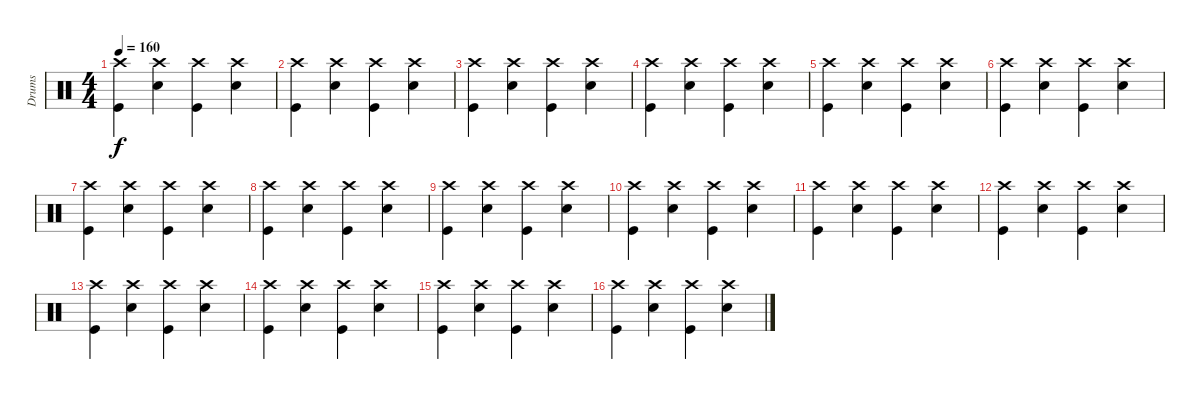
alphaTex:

\track ("Drums" "Drums") {instrument percussion}
\staff {score}
\articulation defaults
\ts (4 4)
\tempo 160
\clef neutral
\ks c
("Crash high (hit)" "Kick (hit)").4{dy f} ("Crash high (hit)" "Snare (hit) 2").4 ("Crash high (hit)" "Kick (hit)").4 ("Crash high (hit)" "Snare (hit) 2").4 |
("Crash high (hit)" "Kick (hit)").4 ("Crash high (hit)" "Snare (hit) 2").4 ("Crash high (hit)" "Kick (hit)").4 ("Crash high (hit)" "Snare (hit) 2").4 |
("Crash high (hit)" "Kick (hit)").4 ("Crash high (hit)" "Snare (hit) 2").4 ("Crash high (hit)" "Kick (hit)").4 ("Crash high (hit)" "Snare (hit) 2").4 |
("Crash high (hit)" "Kick (hit)").4 ("Crash high (hit)" "Snare (hit) 2").4 ("Crash high (hit)" "Kick (hit)").4 ("Crash high (hit)" "Snare (hit) 2").4 |
("Crash high (hit)" "Kick (hit)").4 ("Crash high (hit)" "Snare (hit) 2").4 ("Crash high (hit)" "Kick (hit)").4 ("Crash high (hit)" "Snare (hit) 2").4 |
("Crash high (hit)" "Kick (hit)").4 ("Crash high (hit)" "Snare (hit) 2").4 ("Crash high (hit)" "Kick (hit)").4 ("Crash high (hit)" "Snare (hit) 2").4 |
("Crash high (hit)" "Kick (hit)").4 ("Crash high (hit)" "Snare (hit) 2").4 ("Crash high (hit)" "Kick (hit)").4 ("Crash high (hit)" "Snare (hit) 2").4 |
("Crash high (hit)" "Kick (hit)").4 ("Crash high (hit)" "Snare (hit) 2").4 ("Crash high (hit)" "Kick (hit)").4 ("Crash high (hit)" "Snare (hit) 2").4 |
("Crash high (hit)" "Kick (hit)").4 ("Crash high (hit)" "Snare (hit) 2").4 ("Crash high (hit)" "Kick (hit)").4 ("Crash high (hit)" "Snare (hit) 2").4 |
("Crash high (hit)" "Kick (hit)").4 ("Crash high (hit)" "Snare (hit) 2").4 ("Crash high (hit)" "Kick (hit)").4 ("Crash high (hit)" "Snare (hit) 2").4 |
("Crash high (hit)" "Kick (hit)").4 ("Crash high (hit)" "Snare (hit) 2").4 ("Crash high (hit)" "Kick (hit)").4 ("Crash high (hit)" "Snare (hit) 2").4 |
("Crash high (hit)" "Kick (hit)").4 ("Crash high (hit)" "Snare (hit) 2").4 ("Crash high (hit)" "Kick (hit)").4 ("Crash high (hit)" "Snare (hit) 2").4 |
("Crash high (hit)" "Kick (hit)").4 ("Crash high (hit)" "Snare (hit) 2").4 ("Crash high (hit)" "Kick (hit)").4 ("Crash high (hit)" "Snare (hit) 2").4 |
("Crash high (hit)" "Kick (hit)").4 ("Crash high (hit)" "Snare (hit) 2").4 ("Crash high (hit)" "Kick (hit)").4 ("Crash high (hit)" "Snare (hit) 2").4 |
("Crash high (hit)" "Kick (hit)").4 ("Crash high (hit)" "Snare (hit) 2").4 ("Crash high (hit)" "Kick (hit)").4 ("Crash high (hit)" "Snare (hit) 2").4 |
("Crash high (hit)" "Kick (hit)").4 ("Crash high (hit)" "Snare (hit) 2").4 ("Crash high (hit)" "Kick (hit)").4 ("Crash high (hit)" "Snare (hit) 2").4
